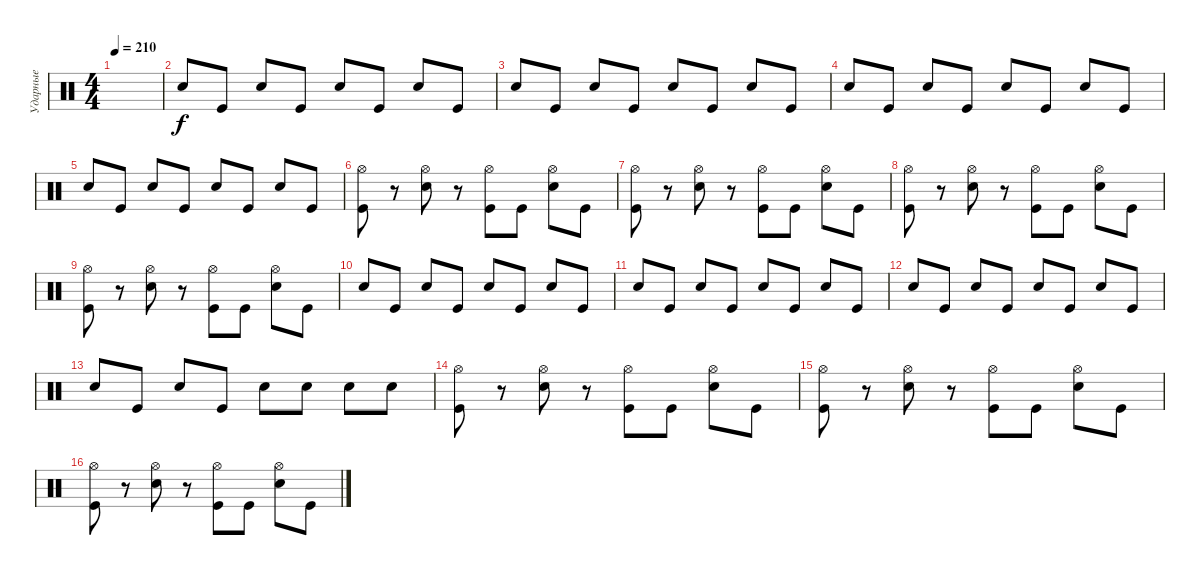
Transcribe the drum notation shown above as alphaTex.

\track ("Ударные" "Ударные") {instrument percussion}
\staff {score}
\articulation defaults
\ts (4 4)
\tempo 210
\clef neutral
\ks c
|
"Electric Snare (hit)".8 "Kick (hit)".8 "Electric Snare (hit)".8 "Kick (hit)".8 "Electric Snare (hit)".8 "Kick (hit)".8 "Electric Snare (hit)".8 "Kick (hit)".8 |
"Electric Snare (hit)".8 "Kick (hit)".8 "Electric Snare (hit)".8 "Kick (hit)".8 "Electric Snare (hit)".8 "Kick (hit)".8 "Electric Snare (hit)".8 "Kick (hit)".8 |
"Electric Snare (hit)".8 "Kick (hit)".8 "Electric Snare (hit)".8 "Kick (hit)".8 "Electric Snare (hit)".8 "Kick (hit)".8 "Electric Snare (hit)".8 "Kick (hit)".8 |
"Electric Snare (hit)".8 "Kick (hit)".8 "Electric Snare (hit)".8 "Kick (hit)".8 "Electric Snare (hit)".8 "Kick (hit)".8 "Electric Snare (hit)".8 "Kick (hit)".8 |
("Hi-Hat (open)" "Kick (hit)").8 r.8 ("Hi-Hat (open)" "Electric Snare (hit)").8 r.8 ("Hi-Hat (open)" "Kick (hit)").8 "Kick (hit)".8 ("Hi-Hat (open)" "Electric Snare (hit)").8 "Kick (hit)".8 |
("Hi-Hat (open)" "Kick (hit)").8 r.8 ("Hi-Hat (open)" "Electric Snare (hit)").8 r.8 ("Hi-Hat (open)" "Kick (hit)").8 "Kick (hit)".8 ("Hi-Hat (open)" "Electric Snare (hit)").8 "Kick (hit)".8 |
("Hi-Hat (open)" "Kick (hit)").8 r.8 ("Hi-Hat (open)" "Electric Snare (hit)").8 r.8 ("Hi-Hat (open)" "Kick (hit)").8 "Kick (hit)".8 ("Hi-Hat (open)" "Electric Snare (hit)").8 "Kick (hit)".8 |
("Hi-Hat (open)" "Kick (hit)").8 r.8 ("Hi-Hat (open)" "Electric Snare (hit)").8 r.8 ("Hi-Hat (open)" "Kick (hit)").8 "Kick (hit)".8 ("Hi-Hat (open)" "Electric Snare (hit)").8 "Kick (hit)".8 |
"Electric Snare (hit)".8 "Kick (hit)".8 "Electric Snare (hit)".8 "Kick (hit)".8 "Electric Snare (hit)".8 "Kick (hit)".8 "Electric Snare (hit)".8 "Kick (hit)".8 |
"Electric Snare (hit)".8 "Kick (hit)".8 "Electric Snare (hit)".8 "Kick (hit)".8 "Electric Snare (hit)".8 "Kick (hit)".8 "Electric Snare (hit)".8 "Kick (hit)".8 |
"Electric Snare (hit)".8 "Kick (hit)".8 "Electric Snare (hit)".8 "Kick (hit)".8 "Electric Snare (hit)".8 "Kick (hit)".8 "Electric Snare (hit)".8 "Kick (hit)".8 |
"Electric Snare (hit)".8 "Kick (hit)".8 "Electric Snare (hit)".8 "Kick (hit)".8 "Electric Snare (hit)".8 "Electric Snare (hit)".8 "Electric Snare (hit)".8 "Electric Snare (hit)".8 |
("Hi-Hat (open)" "Kick (hit)").8 r.8 ("Hi-Hat (open)" "Electric Snare (hit)").8 r.8 ("Hi-Hat (open)" "Kick (hit)").8 "Kick (hit)".8 ("Hi-Hat (open)" "Electric Snare (hit)").8 "Kick (hit)".8 |
("Hi-Hat (open)" "Kick (hit)").8 r.8 ("Hi-Hat (open)" "Electric Snare (hit)").8 r.8 ("Hi-Hat (open)" "Kick (hit)").8 "Kick (hit)".8 ("Hi-Hat (open)" "Electric Snare (hit)").8 "Kick (hit)".8 |
("Hi-Hat (open)" "Kick (hit)").8 r.8 ("Hi-Hat (open)" "Electric Snare (hit)").8 r.8 ("Hi-Hat (open)" "Kick (hit)").8 "Kick (hit)".8 ("Hi-Hat (open)" "Electric Snare (hit)").8 "Kick (hit)".8
